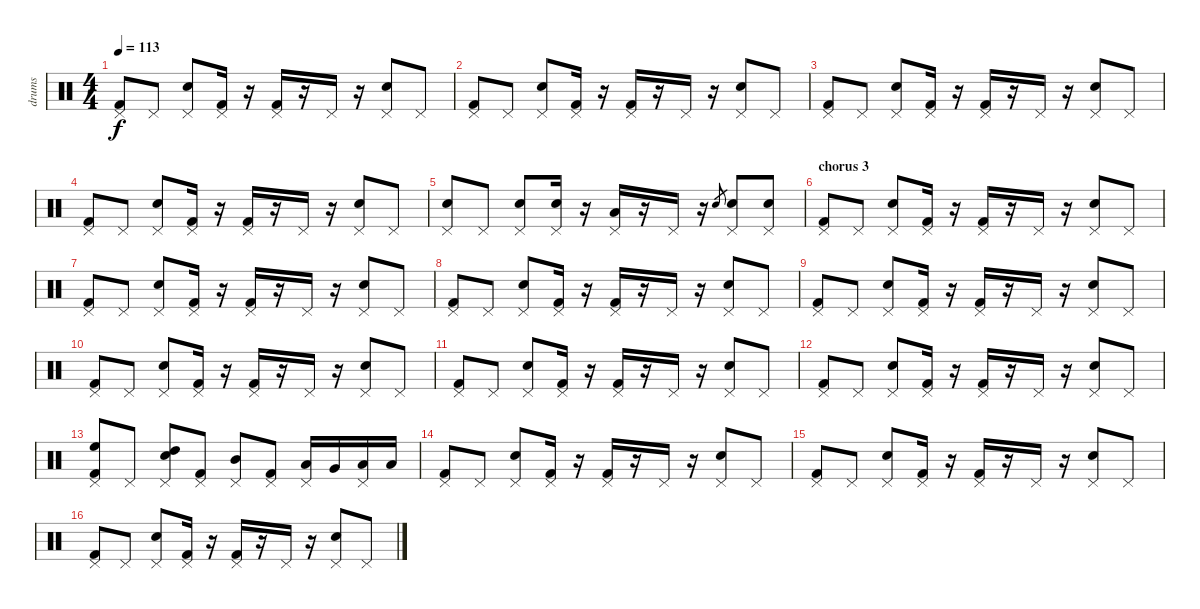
\track ("drums" "drums") {instrument percussion}
\staff {score}
\articulation defaults
\ts (4 4)
\tempo 113
\clef neutral
\ks c
("Kick (hit) 2" "Pedal Hi-Hat (hit)").8{dy f} "Pedal Hi-Hat (hit)".8 ("Snare (hit) 2" "Pedal Hi-Hat (hit)").8 ("Kick (hit) 2" "Pedal Hi-Hat (hit)").16 r.16 ("Kick (hit) 2" "Pedal Hi-Hat (hit)").16 r.16 "Pedal Hi-Hat (hit)".16 r.16 ("Snare (hit) 2" "Pedal Hi-Hat (hit)").8 "Pedal Hi-Hat (hit)".8 |
("Kick (hit) 2" "Pedal Hi-Hat (hit)").8 "Pedal Hi-Hat (hit)".8 ("Snare (hit) 2" "Pedal Hi-Hat (hit)").8 ("Kick (hit) 2" "Pedal Hi-Hat (hit)").16 r.16 ("Kick (hit) 2" "Pedal Hi-Hat (hit)").16 r.16 "Pedal Hi-Hat (hit)".16 r.16 ("Snare (hit) 2" "Pedal Hi-Hat (hit)").8 "Pedal Hi-Hat (hit)".8 |
("Kick (hit) 2" "Pedal Hi-Hat (hit)").8 "Pedal Hi-Hat (hit)".8 ("Snare (hit) 2" "Pedal Hi-Hat (hit)").8 ("Kick (hit) 2" "Pedal Hi-Hat (hit)").16 r.16 ("Kick (hit) 2" "Pedal Hi-Hat (hit)").16 r.16 "Pedal Hi-Hat (hit)".16 r.16 ("Snare (hit) 2" "Pedal Hi-Hat (hit)").8 "Pedal Hi-Hat (hit)".8 |
("Kick (hit) 2" "Pedal Hi-Hat (hit)").8 "Pedal Hi-Hat (hit)".8 ("Snare (hit) 2" "Pedal Hi-Hat (hit)").8 ("Kick (hit) 2" "Pedal Hi-Hat (hit)").16 r.16 ("Kick (hit) 2" "Pedal Hi-Hat (hit)").16 r.16 "Pedal Hi-Hat (hit)".16 r.16 ("Snare (hit) 2" "Pedal Hi-Hat (hit)").8 "Pedal Hi-Hat (hit)".8 |
("Snare (hit) 2" "Pedal Hi-Hat (hit)").8 "Pedal Hi-Hat (hit)".8 ("Snare (hit) 2"{tr (38 16)} "Pedal Hi-Hat (hit)").8 ("Snare (hit) 2" "Pedal Hi-Hat (hit)").16 r.16 ("Low Tom (hit)" "Pedal Hi-Hat (hit)").16 r.16 "Pedal Hi-Hat (hit)".16 r.16 "Snare (hit) 2".8{gr} ("Snare (hit) 2"{tr (38 16)} "Pedal Hi-Hat (hit)").8 ("Snare (hit) 2" "Pedal Hi-Hat (hit)").8 |
\section ("" "chorus 3")
("Kick (hit) 2" "Pedal Hi-Hat (hit)").8 "Pedal Hi-Hat (hit)".8 ("Snare (hit) 2" "Pedal Hi-Hat (hit)").8 ("Kick (hit) 2" "Pedal Hi-Hat (hit)").16 r.16 ("Kick (hit) 2" "Pedal Hi-Hat (hit)").16 r.16 "Pedal Hi-Hat (hit)".16 r.16 ("Snare (hit) 2" "Pedal Hi-Hat (hit)").8 "Pedal Hi-Hat (hit)".8 |
("Kick (hit) 2" "Pedal Hi-Hat (hit)").8 "Pedal Hi-Hat (hit)".8 ("Snare (hit) 2" "Pedal Hi-Hat (hit)").8 ("Kick (hit) 2" "Pedal Hi-Hat (hit)").16 r.16 ("Kick (hit) 2" "Pedal Hi-Hat (hit)").16 r.16 "Pedal Hi-Hat (hit)".16 r.16 ("Snare (hit) 2" "Pedal Hi-Hat (hit)").8 "Pedal Hi-Hat (hit)".8 |
("Kick (hit) 2" "Pedal Hi-Hat (hit)").8 "Pedal Hi-Hat (hit)".8 ("Snare (hit) 2" "Pedal Hi-Hat (hit)").8 ("Kick (hit) 2" "Pedal Hi-Hat (hit)").16 r.16 ("Kick (hit) 2" "Pedal Hi-Hat (hit)").16 r.16 "Pedal Hi-Hat (hit)".16 r.16 ("Snare (hit) 2" "Pedal Hi-Hat (hit)").8 "Pedal Hi-Hat (hit)".8 |
("Kick (hit) 2" "Pedal Hi-Hat (hit)").8 "Pedal Hi-Hat (hit)".8 ("Snare (hit) 2" "Pedal Hi-Hat (hit)").8 ("Kick (hit) 2" "Pedal Hi-Hat (hit)").16 r.16 ("Kick (hit) 2" "Pedal Hi-Hat (hit)").16 r.16 "Pedal Hi-Hat (hit)".16 r.16 ("Snare (hit) 2" "Pedal Hi-Hat (hit)").8 "Pedal Hi-Hat (hit)".8 |
("Kick (hit) 2" "Pedal Hi-Hat (hit)").8 "Pedal Hi-Hat (hit)".8 ("Snare (hit) 2" "Pedal Hi-Hat (hit)").8 ("Kick (hit) 2" "Pedal Hi-Hat (hit)").16 r.16 ("Kick (hit) 2" "Pedal Hi-Hat (hit)").16 r.16 "Pedal Hi-Hat (hit)".16 r.16 ("Snare (hit) 2" "Pedal Hi-Hat (hit)").8 "Pedal Hi-Hat (hit)".8 |
("Kick (hit) 2" "Pedal Hi-Hat (hit)").8 "Pedal Hi-Hat (hit)".8 ("Snare (hit) 2" "Pedal Hi-Hat (hit)").8 ("Kick (hit) 2" "Pedal Hi-Hat (hit)").16 r.16 ("Kick (hit) 2" "Pedal Hi-Hat (hit)").16 r.16 "Pedal Hi-Hat (hit)".16 r.16 ("Snare (hit) 2" "Pedal Hi-Hat (hit)").8 "Pedal Hi-Hat (hit)".8 |
("Kick (hit) 2" "Pedal Hi-Hat (hit)").8 "Pedal Hi-Hat (hit)".8 ("Snare (hit) 2" "Pedal Hi-Hat (hit)").8 ("Kick (hit) 2" "Pedal Hi-Hat (hit)").16 r.16 ("Kick (hit) 2" "Pedal Hi-Hat (hit)").16 r.16 "Pedal Hi-Hat (hit)".16 r.16 ("Snare (hit) 2" "Pedal Hi-Hat (hit)").8 "Pedal Hi-Hat (hit)".8 |
("Kick (hit) 2" "Pedal Hi-Hat (hit)" "High Floor Tom (hit)").8 "Pedal Hi-Hat (hit)".8 ("Snare (hit) 2" "Pedal Hi-Hat (hit)" "High Tom (hit)").8 ("Kick (hit) 2" "Pedal Hi-Hat (hit)").8 ("Pedal Hi-Hat (hit)" "Mid Tom (hit)").8 ("Kick (hit) 2" "Pedal Hi-Hat (hit)").8 ("Pedal Hi-Hat (hit)" "Low Tom (hit)").16 "Very Low Tom (hit)".16 ("Pedal Hi-Hat (hit)" "Low Floor Tom (hit)").16 "Low Floor Tom (hit)".16 |
("Kick (hit) 2" "Pedal Hi-Hat (hit)").8 "Pedal Hi-Hat (hit)".8 ("Snare (hit) 2" "Pedal Hi-Hat (hit)").8 ("Kick (hit) 2" "Pedal Hi-Hat (hit)").16 r.16 ("Kick (hit) 2" "Pedal Hi-Hat (hit)").16 r.16 "Pedal Hi-Hat (hit)".16 r.16 ("Snare (hit) 2" "Pedal Hi-Hat (hit)").8 "Pedal Hi-Hat (hit)".8 |
("Kick (hit) 2" "Pedal Hi-Hat (hit)").8 "Pedal Hi-Hat (hit)".8 ("Snare (hit) 2" "Pedal Hi-Hat (hit)").8 ("Kick (hit) 2" "Pedal Hi-Hat (hit)").16 r.16 ("Kick (hit) 2" "Pedal Hi-Hat (hit)").16 r.16 "Pedal Hi-Hat (hit)".16 r.16 ("Snare (hit) 2" "Pedal Hi-Hat (hit)").8 "Pedal Hi-Hat (hit)".8 |
("Kick (hit) 2" "Pedal Hi-Hat (hit)").8 "Pedal Hi-Hat (hit)".8 ("Snare (hit) 2" "Pedal Hi-Hat (hit)").8 ("Kick (hit) 2" "Pedal Hi-Hat (hit)").16 r.16 ("Kick (hit) 2" "Pedal Hi-Hat (hit)").16 r.16 "Pedal Hi-Hat (hit)".16 r.16 ("Snare (hit) 2" "Pedal Hi-Hat (hit)").8 "Pedal Hi-Hat (hit)".8
